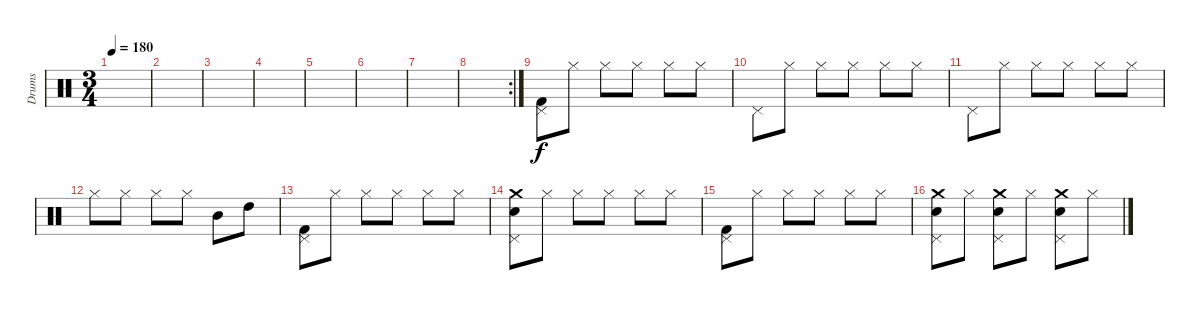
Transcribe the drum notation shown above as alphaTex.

\track ("Drums" "Drums") {instrument percussion}
\staff {score}
\articulation defaults
\ts (3 4)
\tempo 180
\clef neutral
\ks c
|
|
|
|
|
|
|
\rc 2
|
("Pedal Hi-Hat (hit)" "Kick (hit) 2").8 "Hi-Hat (closed)".8 "Hi-Hat (closed)".8 "Hi-Hat (closed)".8 "Hi-Hat (closed)".8 "Hi-Hat (closed)".8 |
"Pedal Hi-Hat (hit)".8 "Hi-Hat (closed)".8 "Hi-Hat (closed)".8 "Hi-Hat (closed)".8 "Hi-Hat (closed)".8 "Hi-Hat (closed)".8 |
"Pedal Hi-Hat (hit)".8 "Hi-Hat (closed)".8 "Hi-Hat (closed)".8 "Hi-Hat (closed)".8 "Hi-Hat (closed)".8 "Hi-Hat (closed)".8 |
"Hi-Hat (closed)".8 "Hi-Hat (closed)".8 "Hi-Hat (closed)".8 "Hi-Hat (closed)".8 "Mid Tom (hit)".8 "High Tom (hit)".8 |
("Pedal Hi-Hat (hit)" "Kick (hit) 2").8 "Hi-Hat (closed)".8 "Hi-Hat (closed)".8 "Hi-Hat (closed)".8 "Hi-Hat (closed)".8 "Hi-Hat (closed)".8 |
("Crash medium (hit)" "Electric Snare (hit)" "Pedal Hi-Hat (hit)").8 "Hi-Hat (closed)".8 "Hi-Hat (closed)".8 "Hi-Hat (closed)".8 "Hi-Hat (closed)".8 "Hi-Hat (closed)".8 |
("Pedal Hi-Hat (hit)" "Kick (hit) 2").8 "Hi-Hat (closed)".8 "Hi-Hat (closed)".8 "Hi-Hat (closed)".8 "Hi-Hat (closed)".8 "Hi-Hat (closed)".8 |
("Crash medium (hit)" "Electric Snare (hit)" "Pedal Hi-Hat (hit)").8 "Hi-Hat (closed)".8 ("Crash medium (hit)" "Pedal Hi-Hat (hit)" "Electric Snare (hit)").8 "Hi-Hat (closed)".8 ("Crash medium (hit)" "Pedal Hi-Hat (hit)" "Electric Snare (hit)").8 "Hi-Hat (closed)".8
